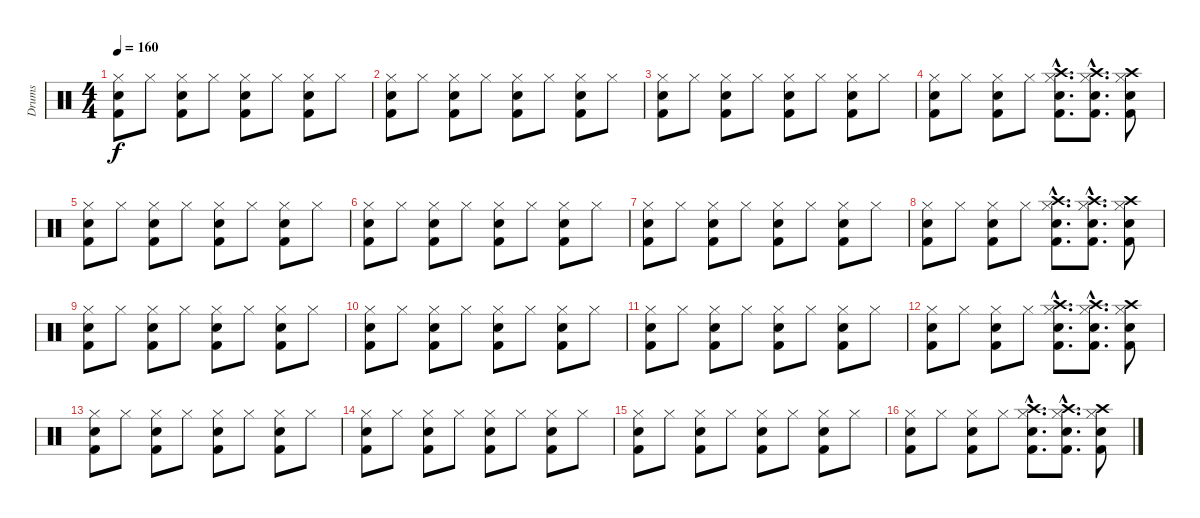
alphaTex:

\track ("Drums" "Drums") {instrument percussion}
\staff {score}
\articulation defaults
\ts (4 4)
\tempo 160
\clef neutral
\ks c
("Hi-Hat (closed)" "Kick (hit) 2" "Electric Snare (hit)").8{dy f} "Hi-Hat (closed)".8 ("Hi-Hat (closed)" "Kick (hit) 2" "Electric Snare (hit)").8 "Hi-Hat (closed)".8 ("Hi-Hat (closed)" "Kick (hit) 2" "Electric Snare (hit)").8 "Hi-Hat (closed)".8 ("Hi-Hat (closed)" "Kick (hit) 2" "Electric Snare (hit)").8 "Hi-Hat (closed)".8 |
("Hi-Hat (closed)" "Kick (hit) 2" "Electric Snare (hit)").8 "Hi-Hat (closed)".8 ("Hi-Hat (closed)" "Kick (hit) 2" "Electric Snare (hit)").8 "Hi-Hat (closed)".8 ("Hi-Hat (closed)" "Kick (hit) 2" "Electric Snare (hit)").8 "Hi-Hat (closed)".8 ("Hi-Hat (closed)" "Kick (hit) 2" "Electric Snare (hit)").8 "Hi-Hat (closed)".8 |
("Hi-Hat (closed)" "Kick (hit) 2" "Electric Snare (hit)").8 "Hi-Hat (closed)".8 ("Hi-Hat (closed)" "Kick (hit) 2" "Electric Snare (hit)").8 "Hi-Hat (closed)".8 ("Hi-Hat (closed)" "Kick (hit) 2" "Electric Snare (hit)").8 "Hi-Hat (closed)".8 ("Hi-Hat (closed)" "Kick (hit) 2" "Electric Snare (hit)").8 "Hi-Hat (closed)".8 |
("Hi-Hat (closed)" "Kick (hit) 2" "Electric Snare (hit)").8 "Hi-Hat (closed)".8 ("Hi-Hat (closed)" "Kick (hit) 2" "Electric Snare (hit)").8 "Hi-Hat (closed)".8 ("Hi-Hat (closed)"{hac} "Kick (hit) 2"{hac} "Electric Snare (hit)"{hac} "Crash high (hit)"{hac}).8{d} ("Hi-Hat (closed)"{hac} "Kick (hit) 2"{hac} "Electric Snare (hit)"{hac} "Crash high (hit)"{hac}).8{d} ("Kick (hit) 2" "Hi-Hat (closed)" "Electric Snare (hit)" "Crash high (hit)").8 |
("Hi-Hat (closed)" "Kick (hit) 2" "Electric Snare (hit)").8 "Hi-Hat (closed)".8 ("Hi-Hat (closed)" "Kick (hit) 2" "Electric Snare (hit)").8 "Hi-Hat (closed)".8 ("Hi-Hat (closed)" "Kick (hit) 2" "Electric Snare (hit)").8 "Hi-Hat (closed)".8 ("Hi-Hat (closed)" "Kick (hit) 2" "Electric Snare (hit)").8 "Hi-Hat (closed)".8 |
("Hi-Hat (closed)" "Kick (hit) 2" "Electric Snare (hit)").8 "Hi-Hat (closed)".8 ("Hi-Hat (closed)" "Kick (hit) 2" "Electric Snare (hit)").8 "Hi-Hat (closed)".8 ("Hi-Hat (closed)" "Kick (hit) 2" "Electric Snare (hit)").8 "Hi-Hat (closed)".8 ("Hi-Hat (closed)" "Kick (hit) 2" "Electric Snare (hit)").8 "Hi-Hat (closed)".8 |
("Hi-Hat (closed)" "Kick (hit) 2" "Electric Snare (hit)").8 "Hi-Hat (closed)".8 ("Hi-Hat (closed)" "Kick (hit) 2" "Electric Snare (hit)").8 "Hi-Hat (closed)".8 ("Hi-Hat (closed)" "Kick (hit) 2" "Electric Snare (hit)").8 "Hi-Hat (closed)".8 ("Hi-Hat (closed)" "Kick (hit) 2" "Electric Snare (hit)").8 "Hi-Hat (closed)".8 |
("Hi-Hat (closed)" "Kick (hit) 2" "Electric Snare (hit)").8 "Hi-Hat (closed)".8 ("Hi-Hat (closed)" "Kick (hit) 2" "Electric Snare (hit)").8 "Hi-Hat (closed)".8 ("Hi-Hat (closed)"{hac} "Kick (hit) 2"{hac} "Electric Snare (hit)"{hac} "Crash high (hit)"{hac}).8{d} ("Hi-Hat (closed)"{hac} "Kick (hit) 2"{hac} "Electric Snare (hit)"{hac} "Crash high (hit)"{hac}).8{d} ("Kick (hit) 2" "Hi-Hat (closed)" "Electric Snare (hit)" "Crash high (hit)").8 |
("Hi-Hat (closed)" "Kick (hit) 2" "Electric Snare (hit)").8 "Hi-Hat (closed)".8 ("Hi-Hat (closed)" "Kick (hit) 2" "Electric Snare (hit)").8 "Hi-Hat (closed)".8 ("Hi-Hat (closed)" "Kick (hit) 2" "Electric Snare (hit)").8 "Hi-Hat (closed)".8 ("Hi-Hat (closed)" "Kick (hit) 2" "Electric Snare (hit)").8 "Hi-Hat (closed)".8 |
("Hi-Hat (closed)" "Kick (hit) 2" "Electric Snare (hit)").8 "Hi-Hat (closed)".8 ("Hi-Hat (closed)" "Kick (hit) 2" "Electric Snare (hit)").8 "Hi-Hat (closed)".8 ("Hi-Hat (closed)" "Kick (hit) 2" "Electric Snare (hit)").8 "Hi-Hat (closed)".8 ("Hi-Hat (closed)" "Kick (hit) 2" "Electric Snare (hit)").8 "Hi-Hat (closed)".8 |
("Hi-Hat (closed)" "Kick (hit) 2" "Electric Snare (hit)").8 "Hi-Hat (closed)".8 ("Hi-Hat (closed)" "Kick (hit) 2" "Electric Snare (hit)").8 "Hi-Hat (closed)".8 ("Hi-Hat (closed)" "Kick (hit) 2" "Electric Snare (hit)").8 "Hi-Hat (closed)".8 ("Hi-Hat (closed)" "Kick (hit) 2" "Electric Snare (hit)").8 "Hi-Hat (closed)".8 |
("Hi-Hat (closed)" "Kick (hit) 2" "Electric Snare (hit)").8 "Hi-Hat (closed)".8 ("Hi-Hat (closed)" "Kick (hit) 2" "Electric Snare (hit)").8 "Hi-Hat (closed)".8 ("Hi-Hat (closed)"{hac} "Kick (hit) 2"{hac} "Electric Snare (hit)"{hac} "Crash high (hit)"{hac}).8{d} ("Hi-Hat (closed)"{hac} "Kick (hit) 2"{hac} "Electric Snare (hit)"{hac} "Crash high (hit)"{hac}).8{d} ("Kick (hit) 2" "Hi-Hat (closed)" "Electric Snare (hit)" "Crash high (hit)").8 |
("Hi-Hat (closed)" "Kick (hit) 2" "Electric Snare (hit)").8 "Hi-Hat (closed)".8 ("Hi-Hat (closed)" "Kick (hit) 2" "Electric Snare (hit)").8 "Hi-Hat (closed)".8 ("Hi-Hat (closed)" "Kick (hit) 2" "Electric Snare (hit)").8 "Hi-Hat (closed)".8 ("Hi-Hat (closed)" "Kick (hit) 2" "Electric Snare (hit)").8 "Hi-Hat (closed)".8 |
("Hi-Hat (closed)" "Kick (hit) 2" "Electric Snare (hit)").8 "Hi-Hat (closed)".8 ("Hi-Hat (closed)" "Kick (hit) 2" "Electric Snare (hit)").8 "Hi-Hat (closed)".8 ("Hi-Hat (closed)" "Kick (hit) 2" "Electric Snare (hit)").8 "Hi-Hat (closed)".8 ("Hi-Hat (closed)" "Kick (hit) 2" "Electric Snare (hit)").8 "Hi-Hat (closed)".8 |
("Hi-Hat (closed)" "Kick (hit) 2" "Electric Snare (hit)").8 "Hi-Hat (closed)".8 ("Hi-Hat (closed)" "Kick (hit) 2" "Electric Snare (hit)").8 "Hi-Hat (closed)".8 ("Hi-Hat (closed)" "Kick (hit) 2" "Electric Snare (hit)").8 "Hi-Hat (closed)".8 ("Hi-Hat (closed)" "Kick (hit) 2" "Electric Snare (hit)").8 "Hi-Hat (closed)".8 |
("Hi-Hat (closed)" "Kick (hit) 2" "Electric Snare (hit)").8 "Hi-Hat (closed)".8 ("Hi-Hat (closed)" "Kick (hit) 2" "Electric Snare (hit)").8 "Hi-Hat (closed)".8 ("Hi-Hat (closed)"{hac} "Kick (hit) 2"{hac} "Electric Snare (hit)"{hac} "Crash high (hit)"{hac}).8{d} ("Hi-Hat (closed)"{hac} "Kick (hit) 2"{hac} "Electric Snare (hit)"{hac} "Crash high (hit)"{hac}).8{d} ("Kick (hit) 2" "Hi-Hat (closed)" "Electric Snare (hit)" "Crash high (hit)").8
